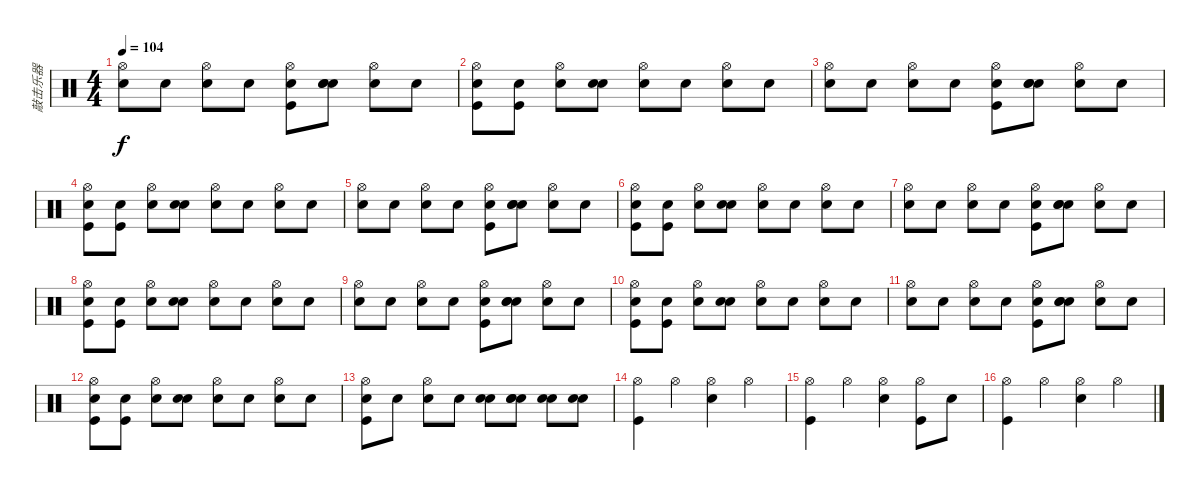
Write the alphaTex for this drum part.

\track ("敲击乐器" "敲击乐器") {instrument percussion}
\staff {score}
\articulation defaults
\ts (4 4)
\tempo 104
\clef neutral
\ks c
("Hi-Hat (open)" "Snare (hit)").8{dy f} "Snare (hit)".8 ("Hi-Hat (open)" "Snare (hit)").8 "Snare (hit)".8 ("Hi-Hat (open)" "Snare (hit)" "Kick (hit)").8 ("Snare (hit) 2" "Electric Snare (hit)" "Snare (hit)").8 ("Hi-Hat (open)" "Snare (hit)").8 "Snare (hit)".8 |
("Hi-Hat (open)" "Snare (hit)" "Kick (hit)").8 ("Snare (hit)" "Kick (hit)").8 ("Hi-Hat (open)" "Snare (hit)").8 ("Snare (hit) 2" "Snare (hit)").8 ("Hi-Hat (open)" "Snare (hit)").8 "Snare (hit)".8 ("Hi-Hat (open)" "Snare (hit)").8 "Snare (hit)".8 |
("Hi-Hat (open)" "Snare (hit)").8 "Snare (hit)".8 ("Hi-Hat (open)" "Snare (hit)").8 "Snare (hit)".8 ("Hi-Hat (open)" "Snare (hit)" "Kick (hit)").8 ("Electric Snare (hit)" "Snare (hit) 2" "Snare (hit)").8 ("Hi-Hat (open)" "Snare (hit)").8 "Snare (hit)".8 |
("Hi-Hat (open)" "Snare (hit)" "Kick (hit)").8 ("Snare (hit)" "Kick (hit)").8 ("Hi-Hat (open)" "Snare (hit)").8 ("Snare (hit) 2" "Snare (hit)").8 ("Hi-Hat (open)" "Snare (hit)").8 "Snare (hit)".8 ("Hi-Hat (open)" "Snare (hit)").8 "Snare (hit)".8 |
("Hi-Hat (open)" "Snare (hit)").8 "Snare (hit)".8 ("Hi-Hat (open)" "Snare (hit)").8 "Snare (hit)".8 ("Hi-Hat (open)" "Snare (hit)" "Kick (hit)").8 ("Snare (hit) 2" "Electric Snare (hit)" "Snare (hit)").8 ("Hi-Hat (open)" "Snare (hit)").8 "Snare (hit)".8 |
("Hi-Hat (open)" "Snare (hit)" "Kick (hit)").8 ("Snare (hit)" "Kick (hit)").8 ("Hi-Hat (open)" "Snare (hit)").8 ("Snare (hit) 2" "Snare (hit)").8 ("Hi-Hat (open)" "Snare (hit)").8 "Snare (hit)".8 ("Hi-Hat (open)" "Snare (hit)").8 "Snare (hit)".8 |
("Hi-Hat (open)" "Snare (hit)").8 "Snare (hit)".8 ("Hi-Hat (open)" "Snare (hit)").8 "Snare (hit)".8 ("Hi-Hat (open)" "Snare (hit)" "Kick (hit)").8 ("Electric Snare (hit)" "Snare (hit) 2" "Snare (hit)").8 ("Hi-Hat (open)" "Snare (hit)").8 "Snare (hit)".8 |
("Hi-Hat (open)" "Snare (hit)" "Kick (hit)").8 ("Snare (hit)" "Kick (hit)").8 ("Hi-Hat (open)" "Snare (hit)").8 ("Snare (hit) 2" "Snare (hit)").8 ("Hi-Hat (open)" "Snare (hit)").8 "Snare (hit)".8 ("Hi-Hat (open)" "Snare (hit)").8 "Snare (hit)".8 |
("Hi-Hat (open)" "Snare (hit)").8 "Snare (hit)".8 ("Hi-Hat (open)" "Snare (hit)").8 "Snare (hit)".8 ("Hi-Hat (open)" "Snare (hit)" "Kick (hit)").8 ("Snare (hit) 2" "Electric Snare (hit)" "Snare (hit)").8 ("Hi-Hat (open)" "Snare (hit)").8 "Snare (hit)".8 |
("Hi-Hat (open)" "Snare (hit)" "Kick (hit)").8 ("Snare (hit)" "Kick (hit)").8 ("Hi-Hat (open)" "Snare (hit)").8 ("Snare (hit) 2" "Snare (hit)").8 ("Hi-Hat (open)" "Snare (hit)").8 "Snare (hit)".8 ("Hi-Hat (open)" "Snare (hit)").8 "Snare (hit)".8 |
("Hi-Hat (open)" "Snare (hit)").8 "Snare (hit)".8 ("Hi-Hat (open)" "Snare (hit)").8 "Snare (hit)".8 ("Hi-Hat (open)" "Snare (hit)" "Kick (hit)").8 ("Electric Snare (hit)" "Snare (hit) 2" "Snare (hit)").8 ("Hi-Hat (open)" "Snare (hit)").8 "Snare (hit)".8 |
("Hi-Hat (open)" "Snare (hit)" "Kick (hit)").8 ("Snare (hit)" "Kick (hit)").8 ("Hi-Hat (open)" "Snare (hit)").8 ("Snare (hit) 2" "Snare (hit)").8 ("Hi-Hat (open)" "Snare (hit)").8 "Snare (hit)".8 ("Hi-Hat (open)" "Snare (hit)").8 "Snare (hit)".8 |
("Hi-Hat (open)" "Snare (hit)" "Kick (hit)").8 "Snare (hit)".8 ("Hi-Hat (open)" "Snare (hit)").8 "Snare (hit)".8 ("Electric Snare (hit)" "Snare (hit)").8 ("Snare (hit) 2" "Electric Snare (hit)" "Snare (hit)").8 ("Electric Snare (hit)" "Snare (hit)").8 ("Electric Snare (hit)" "Snare (hit)").8 |
("Hi-Hat (open)" "Kick (hit)").4 "Hi-Hat (open)".4 ("Hi-Hat (open)" "Snare (hit) 2").4 "Hi-Hat (open)".4 |
("Hi-Hat (open)" "Kick (hit)").4 "Hi-Hat (open)".4 ("Hi-Hat (open)" "Snare (hit) 2").4 ("Hi-Hat (open)" "Kick (hit)").8 "Electric Snare (hit)".8 |
("Hi-Hat (open)" "Kick (hit)").4 "Hi-Hat (open)".4 ("Hi-Hat (open)" "Snare (hit) 2").4 "Hi-Hat (open)".4
